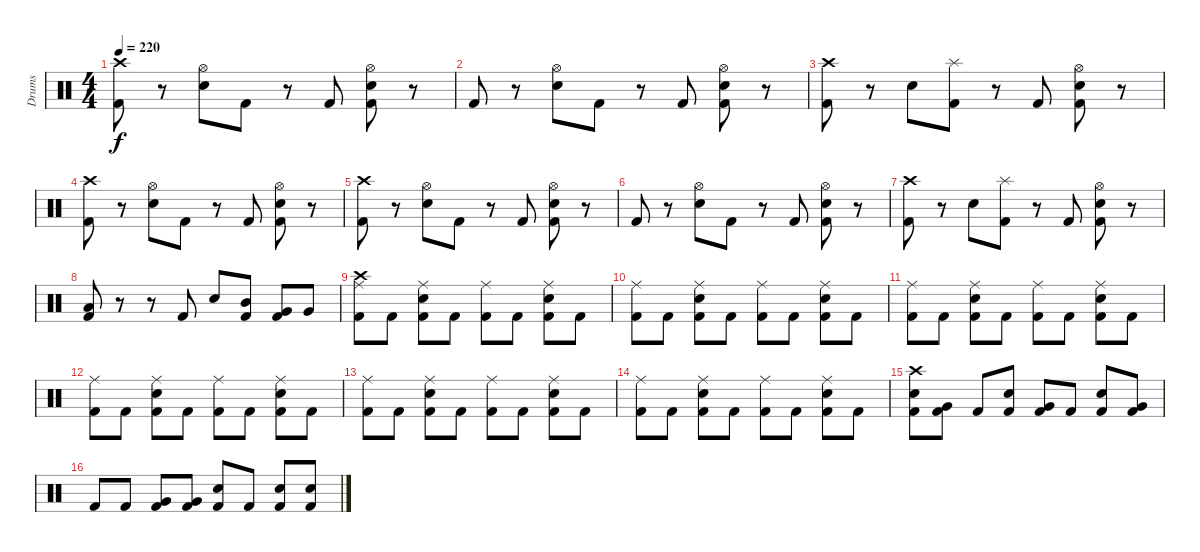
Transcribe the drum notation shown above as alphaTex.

\track ("Drums" "Drums") {instrument percussion}
\staff {score}
\articulation defaults
\ts (4 4)
\tempo 220
\clef neutral
\ks c
("Crash high (hit)" "Kick (hit) 2").8{dy f} r.8 ("Electric Snare (hit)" "Hi-Hat (open)").8 "Kick (hit) 2".8 r.8 "Kick (hit) 2".8 ("Hi-Hat (open)" "Electric Snare (hit)" "Kick (hit) 2").8 r.8 |
"Kick (hit) 2".8 r.8 ("Electric Snare (hit)" "Hi-Hat (open)").8 "Kick (hit) 2".8 r.8 "Kick (hit) 2".8 ("Electric Snare (hit)" "Hi-Hat (open)" "Kick (hit) 2").8 r.8 |
("Crash high (hit)" "Kick (hit) 2").8 r.8 "Electric Snare (hit)".8 ("Splash (hit)" "Kick (hit) 2").8 r.8 "Kick (hit) 2".8 ("Electric Snare (hit)" "Hi-Hat (open)" "Kick (hit) 2").8 r.8 |
("Crash high (hit)" "Kick (hit) 2").8 r.8 ("Electric Snare (hit)" "Hi-Hat (open)").8 "Kick (hit) 2".8 r.8 "Kick (hit) 2".8 ("Electric Snare (hit)" "Hi-Hat (open)" "Kick (hit) 2").8 r.8 |
("Crash high (hit)" "Kick (hit) 2").8 r.8 ("Electric Snare (hit)" "Hi-Hat (open)").8 "Kick (hit) 2".8 r.8 "Kick (hit) 2".8 ("Electric Snare (hit)" "Hi-Hat (open)" "Kick (hit) 2").8 r.8 |
"Kick (hit) 2".8 r.8 ("Electric Snare (hit)" "Hi-Hat (open)").8 "Kick (hit) 2".8 r.8 "Kick (hit) 2".8 ("Electric Snare (hit)" "Hi-Hat (open)" "Kick (hit) 2").8 r.8 |
("Crash high (hit)" "Kick (hit) 2").8 r.8 "Electric Snare (hit)".8 ("Splash (hit)" "Kick (hit) 2").8 r.8 "Kick (hit) 2".8 ("Electric Snare (hit)" "Hi-Hat (open)" "Kick (hit) 2").8 r.8 |
("Low Tom (hit)" "Kick (hit) 2").8 r.8 r.8 "Kick (hit) 2".8 "Electric Snare (hit)".8 ("Mid Tom (hit)" "Kick (hit) 2").8 ("Very Low Tom (hit)" "Kick (hit) 2").8 "Very Low Tom (hit)".8 |
("Crash high (hit)" "Ride (middle)" "Kick (hit) 2").8 "Kick (hit) 2".8 ("Electric Snare (hit)" "Ride (middle)" "Kick (hit) 2").8 "Kick (hit) 2".8 ("Ride (middle)" "Kick (hit) 2").8 "Kick (hit) 2".8 ("Electric Snare (hit)" "Ride (middle)" "Kick (hit) 2").8 "Kick (hit) 2".8 |
("Ride (middle)" "Kick (hit) 2").8 "Kick (hit) 2".8 ("Electric Snare (hit)" "Ride (middle)" "Kick (hit) 2").8 "Kick (hit) 2".8 ("Ride (middle)" "Kick (hit) 2").8 "Kick (hit) 2".8 ("Electric Snare (hit)" "Ride (middle)" "Kick (hit) 2").8 "Kick (hit) 2".8 |
("Ride (middle)" "Kick (hit) 2").8 "Kick (hit) 2".8 ("Electric Snare (hit)" "Ride (middle)" "Kick (hit) 2").8 "Kick (hit) 2".8 ("Ride (middle)" "Kick (hit) 2").8 "Kick (hit) 2".8 ("Electric Snare (hit)" "Ride (middle)" "Kick (hit) 2").8 "Kick (hit) 2".8 |
("Ride (middle)" "Kick (hit) 2").8 "Kick (hit) 2".8 ("Electric Snare (hit)" "Ride (middle)" "Kick (hit) 2").8 "Kick (hit) 2".8 ("Ride (middle)" "Kick (hit) 2").8 "Kick (hit) 2".8 ("Electric Snare (hit)" "Ride (middle)" "Kick (hit) 2").8 "Kick (hit) 2".8 |
("Ride (middle)" "Kick (hit) 2").8 "Kick (hit) 2".8 ("Electric Snare (hit)" "Ride (middle)" "Kick (hit) 2").8 "Kick (hit) 2".8 ("Ride (middle)" "Kick (hit) 2").8 "Kick (hit) 2".8 ("Electric Snare (hit)" "Ride (middle)" "Kick (hit) 2").8 "Kick (hit) 2".8 |
("Ride (middle)" "Kick (hit) 2").8 "Kick (hit) 2".8 ("Electric Snare (hit)" "Ride (middle)" "Kick (hit) 2").8 "Kick (hit) 2".8 ("Ride (middle)" "Kick (hit) 2").8 "Kick (hit) 2".8 ("Electric Snare (hit)" "Ride (middle)" "Kick (hit) 2").8 "Kick (hit) 2".8 |
("Crash high (hit)" "Electric Snare (hit)" "Kick (hit) 2").8 ("Very Low Tom (hit)" "Kick (hit) 2").8 "Kick (hit) 2".8 ("Electric Snare (hit)" "Kick (hit) 2").8 ("Very Low Tom (hit)" "Kick (hit) 2").8 "Kick (hit) 2".8 ("Electric Snare (hit)" "Kick (hit) 2").8 ("Very Low Tom (hit)" "Kick (hit) 2").8 |
"Kick (hit) 2".8 "Kick (hit) 2".8 ("Very Low Tom (hit)" "Kick (hit) 2").8 ("Very Low Tom (hit)" "Kick (hit) 2").8 ("Electric Snare (hit)" "Kick (hit) 2").8 "Kick (hit) 2".8 ("Electric Snare (hit)" "Kick (hit) 2").8 ("Electric Snare (hit)" "Kick (hit) 2").8
